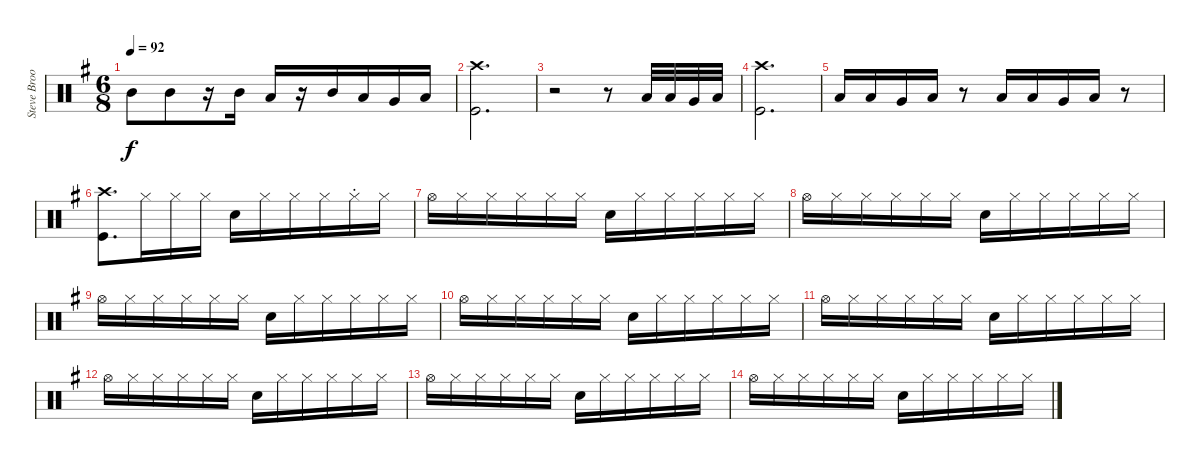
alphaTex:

\track ("Steve Brookins Drums" "Steve Broo") {instrument percussion}
\staff {score}
\articulation defaults
\ts (6 8)
\tempo 92
\clef neutral
\ks g "Mid Tom (hit)".8{dy f} "Mid Tom (hit)".8
r.16 "Mid Tom (hit)".16 "Low Tom (hit)".16 r.16 "Mid Tom (hit)".16 "Low Tom (hit)".16 "Very Low Tom (hit)".16 "Low Floor Tom (hit)".16 |
("Crash high (hit)" "Kick (hit)").2{d} |
r.2 r.8 "Low Tom (hit)".32 "Low Tom (hit)".32 "Very Low Tom (hit)".32 "Low Floor Tom (hit)".32 |
("Crash high (hit)" "Kick (hit)").2{d} |
"Low Tom (hit)".16 "Low Tom (hit)".16 "Very Low Tom (hit)".16 "Low Floor Tom (hit)".16 r.8 "Low Tom (hit)".16 "Low Tom (hit)".16 "Very Low Tom (hit)".16 "Low Floor Tom (hit)".16 r.8 |
("Crash high (hit)" "Kick (hit)").8{d} "Hi-Hat (closed)".16 "Hi-Hat (closed)".16 "Hi-Hat (closed)".16 "Snare (hit) 2".16 "Hi-Hat (closed)".16 "Hi-Hat (closed)".16 "Hi-Hat (closed)".16 "Hi-Hat (closed)"{st}.16 "Hi-Hat (closed)".16 |
"Hi-Hat (open)".16 "Hi-Hat (closed)".16 "Hi-Hat (closed)".16 "Hi-Hat (closed)".16 "Hi-Hat (closed)".16 "Hi-Hat (closed)".16 "Snare (hit) 2".16 "Hi-Hat (closed)".16 "Hi-Hat (closed)".16 "Hi-Hat (closed)".16 "Hi-Hat (closed)".16 "Hi-Hat (closed)".16 |
"Hi-Hat (open)".16 "Hi-Hat (closed)".16 "Hi-Hat (closed)".16 "Hi-Hat (closed)".16 "Hi-Hat (closed)".16 "Hi-Hat (closed)".16 "Snare (hit) 2".16 "Hi-Hat (closed)".16 "Hi-Hat (closed)".16 "Hi-Hat (closed)".16 "Hi-Hat (closed)".16 "Hi-Hat (closed)".16 |
"Hi-Hat (open)".16 "Hi-Hat (closed)".16 "Hi-Hat (closed)".16 "Hi-Hat (closed)".16 "Hi-Hat (closed)".16 "Hi-Hat (closed)".16 "Snare (hit) 2".16 "Hi-Hat (closed)".16 "Hi-Hat (closed)".16 "Hi-Hat (closed)".16 "Hi-Hat (closed)".16 "Hi-Hat (closed)".16 |
"Hi-Hat (open)".16 "Hi-Hat (closed)".16 "Hi-Hat (closed)".16 "Hi-Hat (closed)".16 "Hi-Hat (closed)".16 "Hi-Hat (closed)".16 "Snare (hit) 2".16 "Hi-Hat (closed)".16 "Hi-Hat (closed)".16 "Hi-Hat (closed)".16 "Hi-Hat (closed)".16 "Hi-Hat (closed)".16 |
"Hi-Hat (open)".16 "Hi-Hat (closed)".16 "Hi-Hat (closed)".16 "Hi-Hat (closed)".16 "Hi-Hat (closed)".16 "Hi-Hat (closed)".16 "Snare (hit) 2".16 "Hi-Hat (closed)".16 "Hi-Hat (closed)".16 "Hi-Hat (closed)".16 "Hi-Hat (closed)".16 "Hi-Hat (closed)".16 |
"Hi-Hat (open)".16 "Hi-Hat (closed)".16 "Hi-Hat (closed)".16 "Hi-Hat (closed)".16 "Hi-Hat (closed)".16 "Hi-Hat (closed)".16 "Snare (hit) 2".16 "Hi-Hat (closed)".16 "Hi-Hat (closed)".16 "Hi-Hat (closed)".16 "Hi-Hat (closed)".16 "Hi-Hat (closed)".16 |
"Hi-Hat (open)".16 "Hi-Hat (closed)".16 "Hi-Hat (closed)".16 "Hi-Hat (closed)".16 "Hi-Hat (closed)".16 "Hi-Hat (closed)".16 "Snare (hit) 2".16 "Hi-Hat (closed)".16 "Hi-Hat (closed)".16 "Hi-Hat (closed)".16 "Hi-Hat (closed)".16 "Hi-Hat (closed)".16 |
"Hi-Hat (open)".16 "Hi-Hat (closed)".16 "Hi-Hat (closed)".16 "Hi-Hat (closed)".16 "Hi-Hat (closed)".16 "Hi-Hat (closed)".16 "Snare (hit) 2".16 "Hi-Hat (closed)".16 "Hi-Hat (closed)".16 "Hi-Hat (closed)".16 "Hi-Hat (closed)".16 "Hi-Hat (closed)".16
